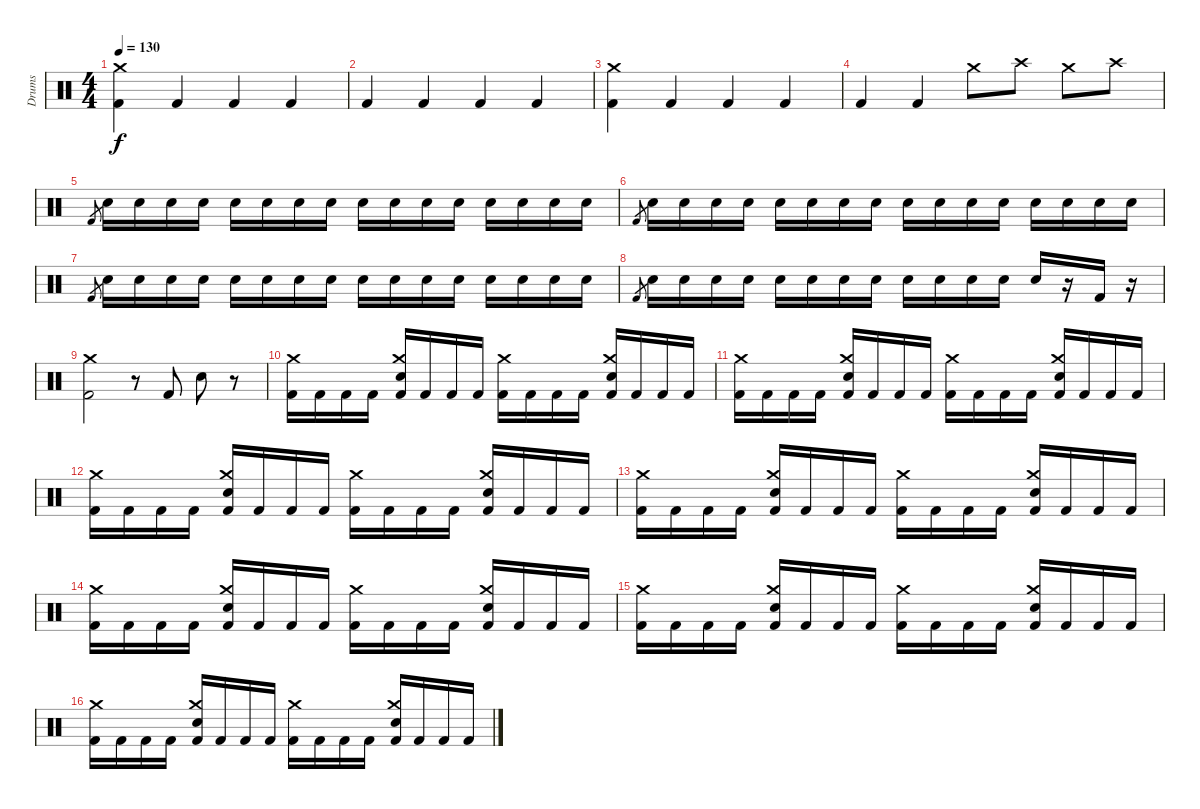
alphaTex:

\track ("Drums" "Drums") {instrument percussion}
\staff {score}
\articulation defaults
\ts (4 4)
\tempo 130
\clef neutral
\ks c
("Kick (hit) 2" "Crash medium (hit)").4{dy f} "Kick (hit) 2".4 "Kick (hit) 2".4 "Kick (hit) 2".4 |
"Kick (hit) 2".4 "Kick (hit) 2".4 "Kick (hit) 2".4 "Kick (hit) 2".4 |
("Kick (hit) 2" "Crash medium (hit)").4 "Kick (hit) 2".4 "Kick (hit) 2".4 "Kick (hit) 2".4 |
"Kick (hit) 2".4 "Kick (hit) 2".4 "Crash medium (hit)".8 "Crash high (hit)".8 "Crash medium (hit)".8 "Crash high (hit)".8 |
"Kick (hit) 2".8{gr} "Snare (hit) 2".16 "Snare (hit)".16 "Snare (hit) 2".16 "Snare (hit) 2".16 "Snare (hit)".16 "Snare (hit) 2".16 "Snare (hit) 2".16 "Snare (hit)".16 "Snare (hit) 2".16 "Snare (hit)".16 "Snare (hit) 2".16 "Snare (hit)".16 "Snare (hit) 2".16 "Snare (hit)".16 "Snare (hit)".16 "Snare (hit)".16 |
"Kick (hit) 2".8{gr} "Snare (hit) 2".16 "Snare (hit)".16 "Snare (hit) 2".16 "Snare (hit) 2".16 "Snare (hit)".16 "Snare (hit) 2".16 "Snare (hit) 2".16 "Snare (hit)".16 "Snare (hit) 2".16 "Snare (hit)".16 "Snare (hit) 2".16 "Snare (hit)".16 "Snare (hit) 2".16 "Snare (hit)".16 "Snare (hit)".16 "Snare (hit)".16 |
"Kick (hit) 2".8{gr} "Snare (hit) 2".16 "Snare (hit)".16 "Snare (hit) 2".16 "Snare (hit) 2".16 "Snare (hit)".16 "Snare (hit) 2".16 "Snare (hit) 2".16 "Snare (hit)".16 "Snare (hit) 2".16 "Snare (hit)".16 "Snare (hit) 2".16 "Snare (hit)".16 "Snare (hit) 2".16 "Snare (hit)".16 "Snare (hit)".16 "Snare (hit)".16 |
"Kick (hit) 2".8{gr} "Snare (hit) 2".16 "Snare (hit)".16 "Snare (hit) 2".16 "Snare (hit) 2".16 "Snare (hit)".16 "Snare (hit) 2".16 "Snare (hit) 2".16 "Snare (hit)".16 "Snare (hit) 2".16 "Snare (hit)".16 "Snare (hit) 2".16 "Snare (hit)".16 "Snare (hit) 2".16 r.16 "Kick (hit) 2".16 r.16 |
("Crash medium (hit)" "Kick (hit) 2").2 r.8 "Kick (hit) 2".8 "Snare (hit) 2".8 r.8 |
("Crash medium (hit)" "Kick (hit) 2").16 "Kick (hit) 2".16 "Kick (hit) 2".16 "Kick (hit) 2".16 ("Crash medium (hit)" "Snare (hit) 2" "Kick (hit) 2").16 "Kick (hit) 2".16 "Kick (hit) 2".16 "Kick (hit) 2".16 ("Crash medium (hit)" "Kick (hit) 2").16 "Kick (hit) 2".16 "Kick (hit) 2".16 "Kick (hit) 2".16 ("Crash medium (hit)" "Snare (hit) 2" "Kick (hit) 2").16 "Kick (hit) 2".16 "Kick (hit) 2".16 "Kick (hit) 2".16 |
("Crash medium (hit)" "Kick (hit) 2").16 "Kick (hit) 2".16 "Kick (hit) 2".16 "Kick (hit) 2".16 ("Crash medium (hit)" "Snare (hit) 2" "Kick (hit) 2").16 "Kick (hit) 2".16 "Kick (hit) 2".16 "Kick (hit) 2".16 ("Crash medium (hit)" "Kick (hit) 2").16 "Kick (hit) 2".16 "Kick (hit) 2".16 "Kick (hit) 2".16 ("Crash medium (hit)" "Snare (hit) 2" "Kick (hit) 2").16 "Kick (hit) 2".16 "Kick (hit) 2".16 "Kick (hit) 2".16 |
("Crash medium (hit)" "Kick (hit) 2").16 "Kick (hit) 2".16 "Kick (hit) 2".16 "Kick (hit) 2".16 ("Crash medium (hit)" "Snare (hit) 2" "Kick (hit) 2").16 "Kick (hit) 2".16 "Kick (hit) 2".16 "Kick (hit) 2".16 ("Crash medium (hit)" "Kick (hit) 2").16 "Kick (hit) 2".16 "Kick (hit) 2".16 "Kick (hit) 2".16 ("Crash medium (hit)" "Snare (hit) 2" "Kick (hit) 2").16 "Kick (hit) 2".16 "Kick (hit) 2".16 "Kick (hit) 2".16 |
("Crash medium (hit)" "Kick (hit) 2").16 "Kick (hit) 2".16 "Kick (hit) 2".16 "Kick (hit) 2".16 ("Crash medium (hit)" "Snare (hit) 2" "Kick (hit) 2").16 "Kick (hit) 2".16 "Kick (hit) 2".16 "Kick (hit) 2".16 ("Crash medium (hit)" "Kick (hit) 2").16 "Kick (hit) 2".16 "Kick (hit) 2".16 "Kick (hit) 2".16 ("Crash medium (hit)" "Snare (hit) 2" "Kick (hit) 2").16 "Kick (hit) 2".16 "Kick (hit) 2".16 "Kick (hit) 2".16 |
("Crash medium (hit)" "Kick (hit) 2").16 "Kick (hit) 2".16 "Kick (hit) 2".16 "Kick (hit) 2".16 ("Crash medium (hit)" "Snare (hit) 2" "Kick (hit) 2").16 "Kick (hit) 2".16 "Kick (hit) 2".16 "Kick (hit) 2".16 ("Crash medium (hit)" "Kick (hit) 2").16 "Kick (hit) 2".16 "Kick (hit) 2".16 "Kick (hit) 2".16 ("Crash medium (hit)" "Snare (hit) 2" "Kick (hit) 2").16 "Kick (hit) 2".16 "Kick (hit) 2".16 "Kick (hit) 2".16 |
("Crash medium (hit)" "Kick (hit) 2").16 "Kick (hit) 2".16 "Kick (hit) 2".16 "Kick (hit) 2".16 ("Crash medium (hit)" "Snare (hit) 2" "Kick (hit) 2").16 "Kick (hit) 2".16 "Kick (hit) 2".16 "Kick (hit) 2".16 ("Crash medium (hit)" "Kick (hit) 2").16 "Kick (hit) 2".16 "Kick (hit) 2".16 "Kick (hit) 2".16 ("Crash medium (hit)" "Snare (hit) 2" "Kick (hit) 2").16 "Kick (hit) 2".16 "Kick (hit) 2".16 "Kick (hit) 2".16 |
("Crash medium (hit)" "Kick (hit) 2").16 "Kick (hit) 2".16 "Kick (hit) 2".16 "Kick (hit) 2".16 ("Crash medium (hit)" "Snare (hit) 2" "Kick (hit) 2").16 "Kick (hit) 2".16 "Kick (hit) 2".16 "Kick (hit) 2".16 ("Crash medium (hit)" "Kick (hit) 2").16 "Kick (hit) 2".16 "Kick (hit) 2".16 "Kick (hit) 2".16 ("Crash medium (hit)" "Snare (hit) 2" "Kick (hit) 2").16 "Kick (hit) 2".16 "Kick (hit) 2".16 "Kick (hit) 2".16
